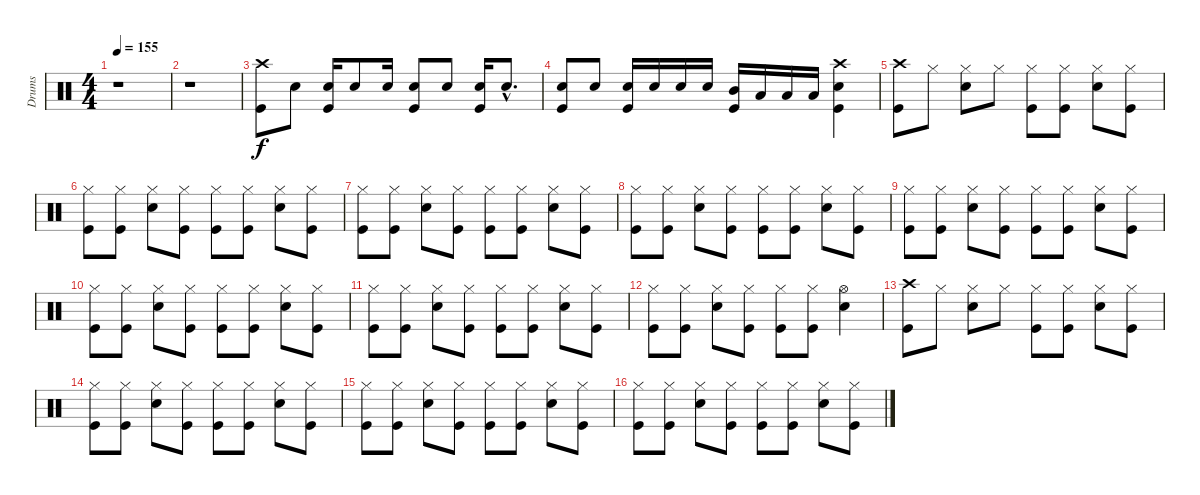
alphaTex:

\track ("Drums" "Drums") {instrument percussion}
\staff {score}
\articulation defaults
\ts (4 4)
\tempo 155
\clef neutral
\ks c
r.1{dy f} |
r.1 |
("Crash high (hit)" "Kick (hit)").8 "Snare (hit) 2".8 ("Snare (hit) 2" "Kick (hit)").16 "Snare (hit) 2".8 "Snare (hit) 2".16 ("Snare (hit) 2" "Kick (hit)").8 "Snare (hit) 2".8 ("Snare (hit) 2" "Kick (hit)").16 "Snare (hit) 2"{hac}.8{d} |
("Snare (hit) 2" "Kick (hit)").8 "Snare (hit) 2".8 ("Snare (hit) 2" "Kick (hit)").16 "Snare (hit) 2".16 "Snare (hit) 2".16 "Snare (hit) 2".16 ("Mid Tom (hit)" "Kick (hit)").16 "Low Tom (hit)".16 "Low Floor Tom (hit)".16 "Low Floor Tom (hit)".16 ("Crash high (hit)" "Snare (hit) 2" "Kick (hit)").4 |
("Crash high (hit)" "Kick (hit)").8 "Hi-Hat (closed)".8 ("Hi-Hat (closed)" "Snare (hit) 2").8 "Hi-Hat (closed)".8 ("Hi-Hat (closed)" "Kick (hit)").8 ("Hi-Hat (closed)" "Kick (hit)").8 ("Hi-Hat (closed)" "Snare (hit) 2").8 ("Hi-Hat (closed)" "Kick (hit)").8 |
("Hi-Hat (closed)" "Kick (hit)").8 ("Hi-Hat (closed)" "Kick (hit)").8 ("Hi-Hat (closed)" "Snare (hit) 2").8 ("Hi-Hat (closed)" "Kick (hit)").8 ("Hi-Hat (closed)" "Kick (hit)").8 ("Hi-Hat (closed)" "Kick (hit)").8 ("Hi-Hat (closed)" "Snare (hit) 2").8 ("Hi-Hat (closed)" "Kick (hit)").8 |
("Hi-Hat (closed)" "Kick (hit)").8 ("Hi-Hat (closed)" "Kick (hit)").8 ("Hi-Hat (closed)" "Snare (hit) 2").8 ("Hi-Hat (closed)" "Kick (hit)").8 ("Hi-Hat (closed)" "Kick (hit)").8 ("Hi-Hat (closed)" "Kick (hit)").8 ("Hi-Hat (closed)" "Snare (hit) 2").8 ("Hi-Hat (closed)" "Kick (hit)").8 |
("Hi-Hat (closed)" "Kick (hit)").8 ("Hi-Hat (closed)" "Kick (hit)").8 ("Hi-Hat (closed)" "Snare (hit) 2").8 ("Hi-Hat (closed)" "Kick (hit)").8 ("Hi-Hat (closed)" "Kick (hit)").8 ("Hi-Hat (closed)" "Kick (hit)").8 ("Hi-Hat (closed)" "Snare (hit) 2").8 ("Hi-Hat (closed)" "Kick (hit)").8 |
("Hi-Hat (closed)" "Kick (hit)").8 ("Hi-Hat (closed)" "Kick (hit)").8 ("Hi-Hat (closed)" "Snare (hit) 2").8 ("Hi-Hat (closed)" "Kick (hit)").8 ("Hi-Hat (closed)" "Kick (hit)").8 ("Hi-Hat (closed)" "Kick (hit)").8 ("Hi-Hat (closed)" "Snare (hit) 2").8 ("Hi-Hat (closed)" "Kick (hit)").8 |
("Hi-Hat (closed)" "Kick (hit)").8 ("Hi-Hat (closed)" "Kick (hit)").8 ("Hi-Hat (closed)" "Snare (hit) 2").8 ("Hi-Hat (closed)" "Kick (hit)").8 ("Hi-Hat (closed)" "Kick (hit)").8 ("Hi-Hat (closed)" "Kick (hit)").8 ("Hi-Hat (closed)" "Snare (hit) 2").8 ("Hi-Hat (closed)" "Kick (hit)").8 |
("Hi-Hat (closed)" "Kick (hit)").8 ("Hi-Hat (closed)" "Kick (hit)").8 ("Hi-Hat (closed)" "Snare (hit) 2").8 ("Hi-Hat (closed)" "Kick (hit)").8 ("Hi-Hat (closed)" "Kick (hit)").8 ("Hi-Hat (closed)" "Kick (hit)").8 ("Hi-Hat (closed)" "Snare (hit) 2").8 ("Hi-Hat (closed)" "Kick (hit)").8 |
("Hi-Hat (closed)" "Kick (hit)").8 ("Hi-Hat (closed)" "Kick (hit)").8 ("Hi-Hat (closed)" "Snare (hit) 2").8 ("Hi-Hat (closed)" "Kick (hit)").8 ("Hi-Hat (closed)" "Kick (hit)").8 ("Hi-Hat (closed)" "Kick (hit)").8 ("Hi-Hat (open)" "Snare (hit) 2").4 |
("Crash high (hit)" "Kick (hit)").8 "Hi-Hat (closed)".8 ("Hi-Hat (closed)" "Snare (hit) 2").8 "Hi-Hat (closed)".8 ("Hi-Hat (closed)" "Kick (hit)").8 ("Hi-Hat (closed)" "Kick (hit)").8 ("Hi-Hat (closed)" "Snare (hit) 2").8 ("Hi-Hat (closed)" "Kick (hit)").8 |
("Hi-Hat (closed)" "Kick (hit)").8 ("Hi-Hat (closed)" "Kick (hit)").8 ("Hi-Hat (closed)" "Snare (hit) 2").8 ("Hi-Hat (closed)" "Kick (hit)").8 ("Hi-Hat (closed)" "Kick (hit)").8 ("Hi-Hat (closed)" "Kick (hit)").8 ("Hi-Hat (closed)" "Snare (hit) 2").8 ("Hi-Hat (closed)" "Kick (hit)").8 |
("Hi-Hat (closed)" "Kick (hit)").8 ("Hi-Hat (closed)" "Kick (hit)").8 ("Hi-Hat (closed)" "Snare (hit) 2").8 ("Hi-Hat (closed)" "Kick (hit)").8 ("Hi-Hat (closed)" "Kick (hit)").8 ("Hi-Hat (closed)" "Kick (hit)").8 ("Hi-Hat (closed)" "Snare (hit) 2").8 ("Hi-Hat (closed)" "Kick (hit)").8 |
("Hi-Hat (closed)" "Kick (hit)").8 ("Hi-Hat (closed)" "Kick (hit)").8 ("Hi-Hat (closed)" "Snare (hit) 2").8 ("Hi-Hat (closed)" "Kick (hit)").8 ("Hi-Hat (closed)" "Kick (hit)").8 ("Hi-Hat (closed)" "Kick (hit)").8 ("Hi-Hat (closed)" "Snare (hit) 2").8 ("Hi-Hat (closed)" "Kick (hit)").8
